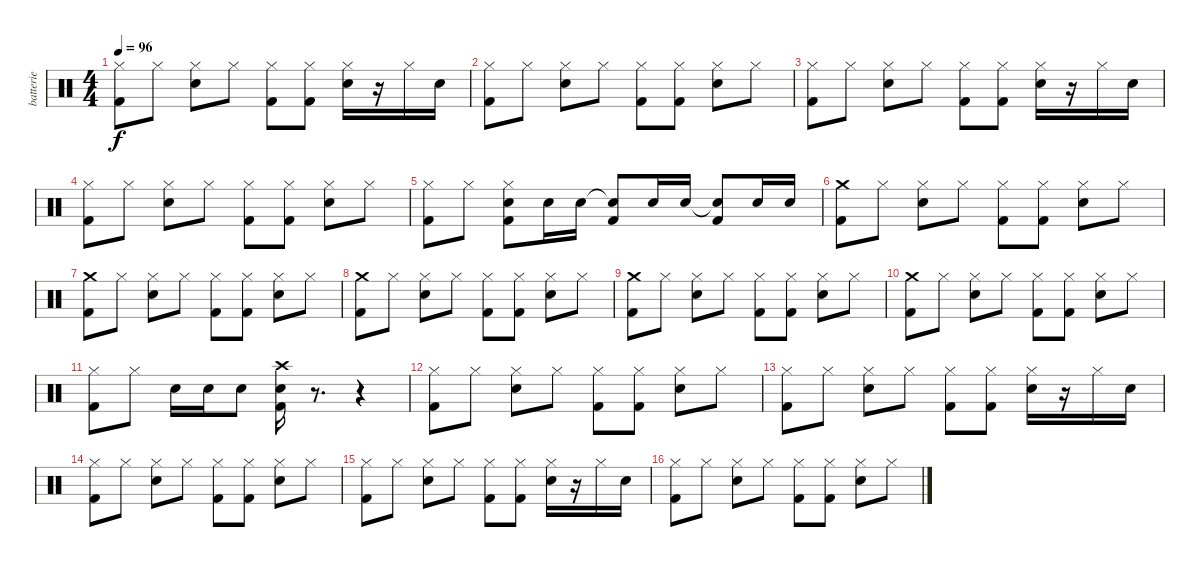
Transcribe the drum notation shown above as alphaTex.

\track ("batterie" "batterie") {instrument percussion}
\staff {score}
\articulation defaults
\ts (4 4)
\tempo 96
\clef neutral
\ks c
("Hi-Hat (closed)" "Kick (hit) 2").8{dy f} "Hi-Hat (closed)".8 ("Hi-Hat (closed)" "Electric Snare (hit)").8 "Hi-Hat (closed)".8 ("Hi-Hat (closed)" "Kick (hit) 2").8 ("Hi-Hat (closed)" "Kick (hit) 2").8 ("Hi-Hat (closed)" "Electric Snare (hit)").16 r.16 "Hi-Hat (closed)".16 "Electric Snare (hit)".16 |
("Hi-Hat (closed)" "Kick (hit) 2").8 "Hi-Hat (closed)".8 ("Hi-Hat (closed)" "Electric Snare (hit)").8 "Hi-Hat (closed)".8 ("Hi-Hat (closed)" "Kick (hit) 2").8 ("Hi-Hat (closed)" "Kick (hit) 2").8 ("Hi-Hat (closed)" "Electric Snare (hit)").8 "Hi-Hat (closed)".8 |
("Hi-Hat (closed)" "Kick (hit) 2").8 "Hi-Hat (closed)".8 ("Hi-Hat (closed)" "Electric Snare (hit)").8 "Hi-Hat (closed)".8 ("Hi-Hat (closed)" "Kick (hit) 2").8 ("Hi-Hat (closed)" "Kick (hit) 2").8 ("Hi-Hat (closed)" "Electric Snare (hit)").16 r.16 "Hi-Hat (closed)".16 "Electric Snare (hit)".16 |
("Hi-Hat (closed)" "Kick (hit) 2").8 "Hi-Hat (closed)".8 ("Hi-Hat (closed)" "Electric Snare (hit)").8 "Hi-Hat (closed)".8 ("Hi-Hat (closed)" "Kick (hit) 2").8 ("Hi-Hat (closed)" "Kick (hit) 2").8 ("Hi-Hat (closed)" "Electric Snare (hit)").8 "Hi-Hat (closed)".8 |
("Hi-Hat (closed)" "Kick (hit) 2").8 "Hi-Hat (closed)".8 ("Hi-Hat (closed)" "Electric Snare (hit)" "Kick (hit) 2").8 "Electric Snare (hit)".16 "Electric Snare (hit)".16 ("Electric Snare (hit)"{t} "Kick (hit) 2").8 "Electric Snare (hit)".16 "Electric Snare (hit)".16 ("Electric Snare (hit)"{t} "Kick (hit) 2").8 "Electric Snare (hit)".16 "Electric Snare (hit)".16 |
("Crash medium (hit)" "Kick (hit) 2").8 "Hi-Hat (closed)".8 ("Hi-Hat (closed)" "Electric Snare (hit)").8 "Hi-Hat (closed)".8 ("Hi-Hat (closed)" "Kick (hit) 2").8 ("Hi-Hat (closed)" "Kick (hit) 2").8 ("Hi-Hat (closed)" "Electric Snare (hit)").8 "Hi-Hat (closed)".8 |
("Crash medium (hit)" "Kick (hit) 2").8 "Hi-Hat (closed)".8 ("Hi-Hat (closed)" "Electric Snare (hit)").8 "Hi-Hat (closed)".8 ("Hi-Hat (closed)" "Kick (hit) 2").8 ("Hi-Hat (closed)" "Kick (hit) 2").8 ("Hi-Hat (closed)" "Electric Snare (hit)").8 "Hi-Hat (closed)".8 |
("Crash medium (hit)" "Kick (hit) 2").8 "Hi-Hat (closed)".8 ("Hi-Hat (closed)" "Electric Snare (hit)").8 "Hi-Hat (closed)".8 ("Hi-Hat (closed)" "Kick (hit) 2").8 ("Hi-Hat (closed)" "Kick (hit) 2").8 ("Hi-Hat (closed)" "Electric Snare (hit)").8 "Hi-Hat (closed)".8 |
("Crash medium (hit)" "Kick (hit) 2").8 "Hi-Hat (closed)".8 ("Hi-Hat (closed)" "Electric Snare (hit)").8 "Hi-Hat (closed)".8 ("Hi-Hat (closed)" "Kick (hit) 2").8 ("Hi-Hat (closed)" "Kick (hit) 2").8 ("Hi-Hat (closed)" "Electric Snare (hit)").8 "Hi-Hat (closed)".8 |
("Crash medium (hit)" "Kick (hit) 2").8 "Hi-Hat (closed)".8 ("Hi-Hat (closed)" "Electric Snare (hit)").8 "Hi-Hat (closed)".8 ("Hi-Hat (closed)" "Kick (hit) 2").8 ("Hi-Hat (closed)" "Kick (hit) 2").8 ("Hi-Hat (closed)" "Electric Snare (hit)").8 "Hi-Hat (closed)".8 |
("Hi-Hat (closed)" "Kick (hit) 2").8 "Hi-Hat (closed)".8 "Electric Snare (hit)".16 "Electric Snare (hit)".16 "Electric Snare (hit)".8 ("Crash high (hit)" "Electric Snare (hit)" "Kick (hit) 2").16 r.8{d} r.4 |
("Hi-Hat (closed)" "Kick (hit) 2").8 "Hi-Hat (closed)".8 ("Hi-Hat (closed)" "Electric Snare (hit)").8 "Hi-Hat (closed)".8 ("Hi-Hat (closed)" "Kick (hit) 2").8 ("Hi-Hat (closed)" "Kick (hit) 2").8 ("Hi-Hat (closed)" "Electric Snare (hit)").8 "Hi-Hat (closed)".8 |
("Hi-Hat (closed)" "Kick (hit) 2").8 "Hi-Hat (closed)".8 ("Hi-Hat (closed)" "Electric Snare (hit)").8 "Hi-Hat (closed)".8 ("Hi-Hat (closed)" "Kick (hit) 2").8 ("Hi-Hat (closed)" "Kick (hit) 2").8 ("Hi-Hat (closed)" "Electric Snare (hit)").16 r.16 "Hi-Hat (closed)".16 "Electric Snare (hit)".16 |
("Hi-Hat (closed)" "Kick (hit) 2").8 "Hi-Hat (closed)".8 ("Hi-Hat (closed)" "Electric Snare (hit)").8 "Hi-Hat (closed)".8 ("Hi-Hat (closed)" "Kick (hit) 2").8 ("Hi-Hat (closed)" "Kick (hit) 2").8 ("Hi-Hat (closed)" "Electric Snare (hit)").8 "Hi-Hat (closed)".8 |
("Hi-Hat (closed)" "Kick (hit) 2").8 "Hi-Hat (closed)".8 ("Hi-Hat (closed)" "Electric Snare (hit)").8 "Hi-Hat (closed)".8 ("Hi-Hat (closed)" "Kick (hit) 2").8 ("Hi-Hat (closed)" "Kick (hit) 2").8 ("Hi-Hat (closed)" "Electric Snare (hit)").16 r.16 "Hi-Hat (closed)".16 "Electric Snare (hit)".16 |
("Hi-Hat (closed)" "Kick (hit) 2").8 "Hi-Hat (closed)".8 ("Hi-Hat (closed)" "Electric Snare (hit)").8 "Hi-Hat (closed)".8 ("Hi-Hat (closed)" "Kick (hit) 2").8 ("Hi-Hat (closed)" "Kick (hit) 2").8 ("Hi-Hat (closed)" "Electric Snare (hit)").8 "Hi-Hat (closed)".8
